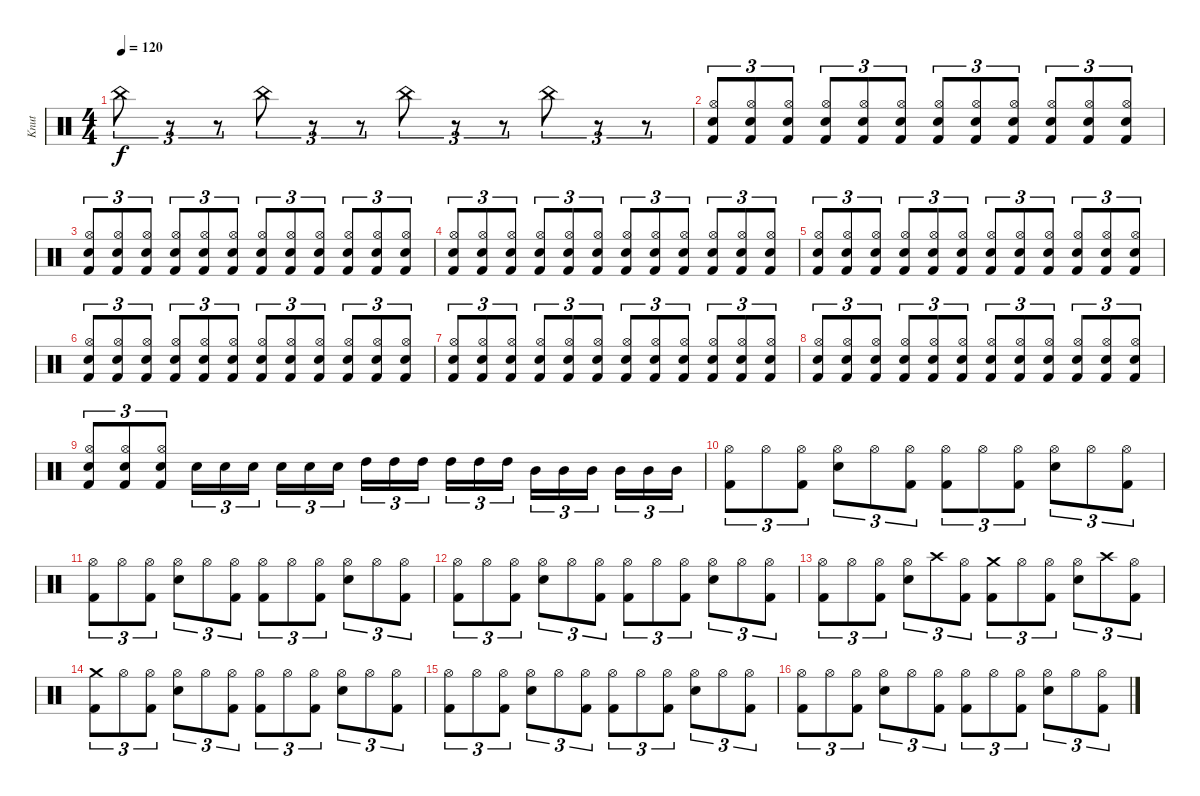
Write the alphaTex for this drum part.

\track ("Knut" "Knut") {instrument percussion}
\staff {score}
\articulation defaults
\ts (4 4)
\tempo 120
\clef neutral
\ks c "China (hit)".8{tu (3 2) dy f}
r.8{tu (3 2)} r.8{tu (3 2)} "China (hit)".8{tu (3 2)} r.8{tu (3 2)} r.8{tu (3 2)} "China (hit)".8{tu (3 2)} r.8{tu (3 2)} r.8{tu (3 2)} "China (hit)".8{tu (3 2)} r.8{tu (3 2)} r.8{tu (3 2)} |
("Electric Snare (hit)" "Hi-Hat (open)" "Kick (hit) 2").8{tu (3 2)} ("Electric Snare (hit)" "Hi-Hat (open)" "Kick (hit) 2").8{tu (3 2)} ("Electric Snare (hit)" "Hi-Hat (open)" "Kick (hit) 2").8{tu (3 2)} ("Electric Snare (hit)" "Hi-Hat (open)" "Kick (hit) 2").8{tu (3 2)} ("Electric Snare (hit)" "Hi-Hat (open)" "Kick (hit) 2").8{tu (3 2)} ("Electric Snare (hit)" "Hi-Hat (open)" "Kick (hit) 2").8{tu (3 2)} ("Electric Snare (hit)" "Hi-Hat (open)" "Kick (hit) 2").8{tu (3 2)} ("Electric Snare (hit)" "Hi-Hat (open)" "Kick (hit) 2").8{tu (3 2)} ("Electric Snare (hit)" "Hi-Hat (open)" "Kick (hit) 2").8{tu (3 2)} ("Electric Snare (hit)" "Hi-Hat (open)" "Kick (hit) 2").8{tu (3 2)} ("Electric Snare (hit)" "Hi-Hat (open)" "Kick (hit) 2").8{tu (3 2)} ("Electric Snare (hit)" "Hi-Hat (open)" "Kick (hit) 2").8{tu (3 2)} |
("Electric Snare (hit)" "Hi-Hat (open)" "Kick (hit) 2").8{tu (3 2)} ("Electric Snare (hit)" "Hi-Hat (open)" "Kick (hit) 2").8{tu (3 2)} ("Electric Snare (hit)" "Hi-Hat (open)" "Kick (hit) 2").8{tu (3 2)} ("Electric Snare (hit)" "Hi-Hat (open)" "Kick (hit) 2").8{tu (3 2)} ("Electric Snare (hit)" "Hi-Hat (open)" "Kick (hit) 2").8{tu (3 2)} ("Electric Snare (hit)" "Hi-Hat (open)" "Kick (hit) 2").8{tu (3 2)} ("Electric Snare (hit)" "Hi-Hat (open)" "Kick (hit) 2").8{tu (3 2)} ("Electric Snare (hit)" "Hi-Hat (open)" "Kick (hit) 2").8{tu (3 2)} ("Electric Snare (hit)" "Hi-Hat (open)" "Kick (hit) 2").8{tu (3 2)} ("Electric Snare (hit)" "Hi-Hat (open)" "Kick (hit) 2").8{tu (3 2)} ("Electric Snare (hit)" "Hi-Hat (open)" "Kick (hit) 2").8{tu (3 2)} ("Electric Snare (hit)" "Hi-Hat (open)" "Kick (hit) 2").8{tu (3 2)} |
("Electric Snare (hit)" "Hi-Hat (open)" "Kick (hit) 2").8{tu (3 2)} ("Electric Snare (hit)" "Hi-Hat (open)" "Kick (hit) 2").8{tu (3 2)} ("Electric Snare (hit)" "Hi-Hat (open)" "Kick (hit) 2").8{tu (3 2)} ("Electric Snare (hit)" "Hi-Hat (open)" "Kick (hit) 2").8{tu (3 2)} ("Electric Snare (hit)" "Hi-Hat (open)" "Kick (hit) 2").8{tu (3 2)} ("Electric Snare (hit)" "Hi-Hat (open)" "Kick (hit) 2").8{tu (3 2)} ("Electric Snare (hit)" "Hi-Hat (open)" "Kick (hit) 2").8{tu (3 2)} ("Electric Snare (hit)" "Hi-Hat (open)" "Kick (hit) 2").8{tu (3 2)} ("Electric Snare (hit)" "Hi-Hat (open)" "Kick (hit) 2").8{tu (3 2)} ("Electric Snare (hit)" "Hi-Hat (open)" "Kick (hit) 2").8{tu (3 2)} ("Electric Snare (hit)" "Hi-Hat (open)" "Kick (hit) 2").8{tu (3 2)} ("Electric Snare (hit)" "Hi-Hat (open)" "Kick (hit) 2").8{tu (3 2)} |
("Electric Snare (hit)" "Hi-Hat (open)" "Kick (hit) 2").8{tu (3 2)} ("Electric Snare (hit)" "Hi-Hat (open)" "Kick (hit) 2").8{tu (3 2)} ("Electric Snare (hit)" "Hi-Hat (open)" "Kick (hit) 2").8{tu (3 2)} ("Electric Snare (hit)" "Hi-Hat (open)" "Kick (hit) 2").8{tu (3 2)} ("Electric Snare (hit)" "Hi-Hat (open)" "Kick (hit) 2").8{tu (3 2)} ("Electric Snare (hit)" "Hi-Hat (open)" "Kick (hit) 2").8{tu (3 2)} ("Electric Snare (hit)" "Hi-Hat (open)" "Kick (hit) 2").8{tu (3 2)} ("Electric Snare (hit)" "Hi-Hat (open)" "Kick (hit) 2").8{tu (3 2)} ("Electric Snare (hit)" "Hi-Hat (open)" "Kick (hit) 2").8{tu (3 2)} ("Electric Snare (hit)" "Hi-Hat (open)" "Kick (hit) 2").8{tu (3 2)} ("Electric Snare (hit)" "Hi-Hat (open)" "Kick (hit) 2").8{tu (3 2)} ("Electric Snare (hit)" "Hi-Hat (open)" "Kick (hit) 2").8{tu (3 2)} |
("Electric Snare (hit)" "Hi-Hat (open)" "Kick (hit) 2").8{tu (3 2)} ("Electric Snare (hit)" "Hi-Hat (open)" "Kick (hit) 2").8{tu (3 2)} ("Electric Snare (hit)" "Hi-Hat (open)" "Kick (hit) 2").8{tu (3 2)} ("Electric Snare (hit)" "Hi-Hat (open)" "Kick (hit) 2").8{tu (3 2)} ("Electric Snare (hit)" "Hi-Hat (open)" "Kick (hit) 2").8{tu (3 2)} ("Electric Snare (hit)" "Hi-Hat (open)" "Kick (hit) 2").8{tu (3 2)} ("Electric Snare (hit)" "Hi-Hat (open)" "Kick (hit) 2").8{tu (3 2)} ("Electric Snare (hit)" "Hi-Hat (open)" "Kick (hit) 2").8{tu (3 2)} ("Electric Snare (hit)" "Hi-Hat (open)" "Kick (hit) 2").8{tu (3 2)} ("Electric Snare (hit)" "Hi-Hat (open)" "Kick (hit) 2").8{tu (3 2)} ("Electric Snare (hit)" "Hi-Hat (open)" "Kick (hit) 2").8{tu (3 2)} ("Electric Snare (hit)" "Hi-Hat (open)" "Kick (hit) 2").8{tu (3 2)} |
("Electric Snare (hit)" "Hi-Hat (open)" "Kick (hit) 2").8{tu (3 2)} ("Electric Snare (hit)" "Hi-Hat (open)" "Kick (hit) 2").8{tu (3 2)} ("Electric Snare (hit)" "Hi-Hat (open)" "Kick (hit) 2").8{tu (3 2)} ("Electric Snare (hit)" "Hi-Hat (open)" "Kick (hit) 2").8{tu (3 2)} ("Electric Snare (hit)" "Hi-Hat (open)" "Kick (hit) 2").8{tu (3 2)} ("Electric Snare (hit)" "Hi-Hat (open)" "Kick (hit) 2").8{tu (3 2)} ("Electric Snare (hit)" "Hi-Hat (open)" "Kick (hit) 2").8{tu (3 2)} ("Electric Snare (hit)" "Hi-Hat (open)" "Kick (hit) 2").8{tu (3 2)} ("Electric Snare (hit)" "Hi-Hat (open)" "Kick (hit) 2").8{tu (3 2)} ("Electric Snare (hit)" "Hi-Hat (open)" "Kick (hit) 2").8{tu (3 2)} ("Electric Snare (hit)" "Hi-Hat (open)" "Kick (hit) 2").8{tu (3 2)} ("Electric Snare (hit)" "Hi-Hat (open)" "Kick (hit) 2").8{tu (3 2)} |
("Electric Snare (hit)" "Hi-Hat (open)" "Kick (hit) 2").8{tu (3 2)} ("Electric Snare (hit)" "Hi-Hat (open)" "Kick (hit) 2").8{tu (3 2)} ("Electric Snare (hit)" "Hi-Hat (open)" "Kick (hit) 2").8{tu (3 2)} ("Electric Snare (hit)" "Hi-Hat (open)" "Kick (hit) 2").8{tu (3 2)} ("Electric Snare (hit)" "Hi-Hat (open)" "Kick (hit) 2").8{tu (3 2)} ("Electric Snare (hit)" "Hi-Hat (open)" "Kick (hit) 2").8{tu (3 2)} ("Electric Snare (hit)" "Hi-Hat (open)" "Kick (hit) 2").8{tu (3 2)} ("Electric Snare (hit)" "Hi-Hat (open)" "Kick (hit) 2").8{tu (3 2)} ("Electric Snare (hit)" "Hi-Hat (open)" "Kick (hit) 2").8{tu (3 2)} ("Electric Snare (hit)" "Hi-Hat (open)" "Kick (hit) 2").8{tu (3 2)} ("Electric Snare (hit)" "Hi-Hat (open)" "Kick (hit) 2").8{tu (3 2)} ("Electric Snare (hit)" "Hi-Hat (open)" "Kick (hit) 2").8{tu (3 2)} |
("Electric Snare (hit)" "Hi-Hat (open)" "Kick (hit) 2").8{tu (3 2)} ("Electric Snare (hit)" "Hi-Hat (open)" "Kick (hit) 2").8{tu (3 2)} ("Electric Snare (hit)" "Hi-Hat (open)" "Kick (hit) 2").8{tu (3 2)} "Electric Snare (hit)".16{tu (3 2)} "Electric Snare (hit)".16{tu (3 2)} "Electric Snare (hit)".16{tu (3 2)} "Electric Snare (hit)".16{tu (3 2)} "Electric Snare (hit)".16{tu (3 2)} "Electric Snare (hit)".16{tu (3 2)} "High Tom (hit)".16{tu (3 2)} "High Tom (hit)".16{tu (3 2)} "High Tom (hit)".16{tu (3 2)} "High Tom (hit)".16{tu (3 2)} "High Tom (hit)".16{tu (3 2)} "High Tom (hit)".16{tu (3 2)} "Mid Tom (hit)".16{tu (3 2)} "Mid Tom (hit)".16{tu (3 2)} "Mid Tom (hit)".16{tu (3 2)} "Mid Tom (hit)".16{tu (3 2)} "Mid Tom (hit)".16{tu (3 2)} "Mid Tom (hit)".16{tu (3 2)} |
("Hi-Hat (open)" "Kick (hit) 2").8{tu (3 2)} "Hi-Hat (open)".8{tu (3 2)} ("Hi-Hat (open)" "Kick (hit) 2").8{tu (3 2)} ("Electric Snare (hit)" "Hi-Hat (open)").8{tu (3 2)} "Hi-Hat (open)".8{tu (3 2)} ("Hi-Hat (open)" "Kick (hit) 2").8{tu (3 2)} ("Hi-Hat (open)" "Kick (hit) 2").8{tu (3 2)} "Hi-Hat (open)".8{tu (3 2)} ("Hi-Hat (open)" "Kick (hit) 2").8{tu (3 2)} ("Electric Snare (hit)" "Hi-Hat (open)").8{tu (3 2)} "Hi-Hat (open)".8{tu (3 2)} ("Hi-Hat (open)" "Kick (hit) 2").8{tu (3 2)} |
("Hi-Hat (open)" "Kick (hit) 2").8{tu (3 2)} "Hi-Hat (open)".8{tu (3 2)} ("Hi-Hat (open)" "Kick (hit) 2").8{tu (3 2)} ("Electric Snare (hit)" "Hi-Hat (open)").8{tu (3 2)} "Hi-Hat (open)".8{tu (3 2)} ("Hi-Hat (open)" "Kick (hit) 2").8{tu (3 2)} ("Hi-Hat (open)" "Kick (hit) 2").8{tu (3 2)} "Hi-Hat (open)".8{tu (3 2)} ("Hi-Hat (open)" "Kick (hit) 2").8{tu (3 2)} ("Electric Snare (hit)" "Hi-Hat (open)").8{tu (3 2)} "Hi-Hat (open)".8{tu (3 2)} ("Hi-Hat (open)" "Kick (hit) 2").8{tu (3 2)} |
("Hi-Hat (open)" "Kick (hit) 2").8{tu (3 2)} "Hi-Hat (open)".8{tu (3 2)} ("Hi-Hat (open)" "Kick (hit) 2").8{tu (3 2)} ("Electric Snare (hit)" "Hi-Hat (open)").8{tu (3 2)} "Hi-Hat (open)".8{tu (3 2)} ("Hi-Hat (open)" "Kick (hit) 2").8{tu (3 2)} ("Hi-Hat (open)" "Kick (hit) 2").8{tu (3 2)} "Hi-Hat (open)".8{tu (3 2)} ("Hi-Hat (open)" "Kick (hit) 2").8{tu (3 2)} ("Electric Snare (hit)" "Hi-Hat (open)").8{tu (3 2)} "Hi-Hat (open)".8{tu (3 2)} ("Hi-Hat (open)" "Kick (hit) 2").8{tu (3 2)} |
("Hi-Hat (open)" "Kick (hit) 2").8{tu (3 2)} "Hi-Hat (open)".8{tu (3 2)} ("Hi-Hat (open)" "Kick (hit) 2").8{tu (3 2)} ("Electric Snare (hit)" "Hi-Hat (open)").8{tu (3 2)} "Crash high (hit)".8{tu (3 2)} ("Hi-Hat (open)" "Kick (hit) 2").8{tu (3 2)} ("Crash medium (hit)" "Kick (hit) 2").8{tu (3 2)} "Hi-Hat (open)".8{tu (3 2)} ("Hi-Hat (open)" "Kick (hit) 2").8{tu (3 2)} ("Electric Snare (hit)" "Hi-Hat (open)").8{tu (3 2)} "Crash high (hit)".8{tu (3 2)} ("Hi-Hat (open)" "Kick (hit) 2").8{tu (3 2)} |
("Crash medium (hit)" "Kick (hit) 2").8{tu (3 2)} "Hi-Hat (open)".8{tu (3 2)} ("Hi-Hat (open)" "Kick (hit) 2").8{tu (3 2)} ("Electric Snare (hit)" "Hi-Hat (open)").8{tu (3 2)} "Hi-Hat (open)".8{tu (3 2)} ("Hi-Hat (open)" "Kick (hit) 2").8{tu (3 2)} ("Hi-Hat (open)" "Kick (hit) 2").8{tu (3 2)} "Hi-Hat (open)".8{tu (3 2)} ("Hi-Hat (open)" "Kick (hit) 2").8{tu (3 2)} ("Electric Snare (hit)" "Hi-Hat (open)").8{tu (3 2)} "Hi-Hat (open)".8{tu (3 2)} ("Hi-Hat (open)" "Kick (hit) 2").8{tu (3 2)} |
("Hi-Hat (open)" "Kick (hit) 2").8{tu (3 2)} "Hi-Hat (open)".8{tu (3 2)} ("Hi-Hat (open)" "Kick (hit) 2").8{tu (3 2)} ("Electric Snare (hit)" "Hi-Hat (open)").8{tu (3 2)} "Hi-Hat (open)".8{tu (3 2)} ("Hi-Hat (open)" "Kick (hit) 2").8{tu (3 2)} ("Hi-Hat (open)" "Kick (hit) 2").8{tu (3 2)} "Hi-Hat (open)".8{tu (3 2)} ("Hi-Hat (open)" "Kick (hit) 2").8{tu (3 2)} ("Electric Snare (hit)" "Hi-Hat (open)").8{tu (3 2)} "Hi-Hat (open)".8{tu (3 2)} ("Hi-Hat (open)" "Kick (hit) 2").8{tu (3 2)} |
("Hi-Hat (open)" "Kick (hit) 2").8{tu (3 2)} "Hi-Hat (open)".8{tu (3 2)} ("Hi-Hat (open)" "Kick (hit) 2").8{tu (3 2)} ("Electric Snare (hit)" "Hi-Hat (open)").8{tu (3 2)} "Hi-Hat (open)".8{tu (3 2)} ("Hi-Hat (open)" "Kick (hit) 2").8{tu (3 2)} ("Hi-Hat (open)" "Kick (hit) 2").8{tu (3 2)} "Hi-Hat (open)".8{tu (3 2)} ("Hi-Hat (open)" "Kick (hit) 2").8{tu (3 2)} ("Electric Snare (hit)" "Hi-Hat (open)").8{tu (3 2)} "Hi-Hat (open)".8{tu (3 2)} ("Hi-Hat (open)" "Kick (hit) 2").8{tu (3 2)}
